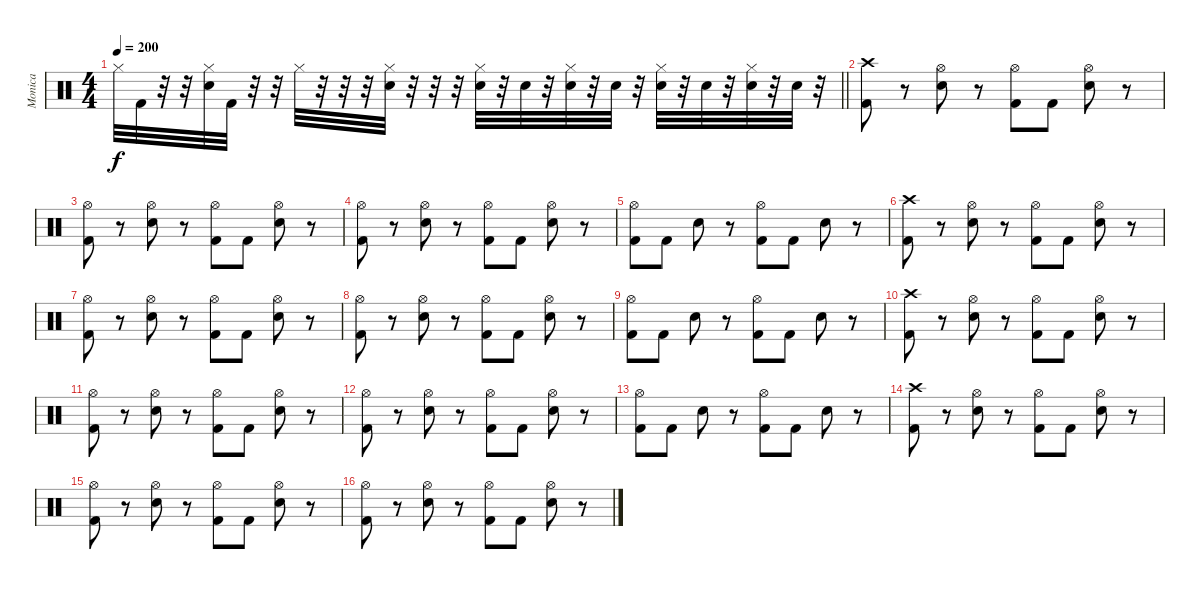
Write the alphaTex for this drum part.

\track ("Monica" "Monica") {instrument percussion}
\staff {score}
\articulation defaults
\ts (4 4)
\tempo 200
\clef neutral
\barLineRight lightlight
\ks c "Hi-Hat (closed)".32{dy f} "Kick (hit) 2".32
r.32 r.32 ("Hi-Hat (closed)" "Snare (hit) 2").32 "Kick (hit) 2".32 r.32 r.32 "Hi-Hat (closed)".32 r.32 r.32 r.32 ("Hi-Hat (closed)" "Snare (hit) 2").32 r.32 r.32 r.32 ("Hi-Hat (closed)" "Snare (hit) 2").32 r.32 "Snare (hit) 2".32 r.32 ("Hi-Hat (closed)" "Snare (hit) 2").32 r.32 "Snare (hit) 2".32 r.32 ("Hi-Hat (closed)" "Snare (hit) 2").32 r.32 "Snare (hit) 2".32 r.32 ("Hi-Hat (closed)" "Snare (hit) 2").32 r.32 "Snare (hit) 2".32 r.32 |
("Crash high (hit)" "Kick (hit) 2").8 r.8 ("Hi-Hat (open)" "Snare (hit) 2").8 r.8 ("Hi-Hat (open)" "Kick (hit) 2").8 "Kick (hit) 2".8 ("Hi-Hat (open)" "Snare (hit) 2").8 r.8 |
("Hi-Hat (open)" "Kick (hit) 2").8 r.8 ("Hi-Hat (open)" "Snare (hit) 2").8 r.8 ("Hi-Hat (open)" "Kick (hit) 2").8 "Kick (hit) 2".8 ("Hi-Hat (open)" "Snare (hit) 2").8 r.8 |
("Hi-Hat (open)" "Kick (hit) 2").8 r.8 ("Hi-Hat (open)" "Snare (hit) 2").8 r.8 ("Hi-Hat (open)" "Kick (hit) 2").8 "Kick (hit) 2".8 ("Hi-Hat (open)" "Snare (hit) 2").8 r.8 |
("Hi-Hat (open)" "Kick (hit) 2").8 "Kick (hit) 2".8 "Snare (hit) 2".8 r.8 ("Hi-Hat (open)" "Kick (hit) 2").8 "Kick (hit) 2".8 "Snare (hit) 2".8 r.8 |
("Crash high (hit)" "Kick (hit) 2").8 r.8 ("Hi-Hat (open)" "Snare (hit) 2").8 r.8 ("Hi-Hat (open)" "Kick (hit) 2").8 "Kick (hit) 2".8 ("Hi-Hat (open)" "Snare (hit) 2").8 r.8 |
("Hi-Hat (open)" "Kick (hit) 2").8 r.8 ("Hi-Hat (open)" "Snare (hit) 2").8 r.8 ("Hi-Hat (open)" "Kick (hit) 2").8 "Kick (hit) 2".8 ("Hi-Hat (open)" "Snare (hit) 2").8 r.8 |
("Hi-Hat (open)" "Kick (hit) 2").8 r.8 ("Hi-Hat (open)" "Snare (hit) 2").8 r.8 ("Hi-Hat (open)" "Kick (hit) 2").8 "Kick (hit) 2".8 ("Hi-Hat (open)" "Snare (hit) 2").8 r.8 |
("Hi-Hat (open)" "Kick (hit) 2").8 "Kick (hit) 2".8 "Snare (hit) 2".8 r.8 ("Hi-Hat (open)" "Kick (hit) 2").8 "Kick (hit) 2".8 "Snare (hit) 2".8 r.8 |
("Crash high (hit)" "Kick (hit) 2").8 r.8 ("Hi-Hat (open)" "Snare (hit) 2").8 r.8 ("Hi-Hat (open)" "Kick (hit) 2").8 "Kick (hit) 2".8 ("Hi-Hat (open)" "Snare (hit) 2").8 r.8 |
("Hi-Hat (open)" "Kick (hit) 2").8 r.8 ("Hi-Hat (open)" "Snare (hit) 2").8 r.8 ("Hi-Hat (open)" "Kick (hit) 2").8 "Kick (hit) 2".8 ("Hi-Hat (open)" "Snare (hit) 2").8 r.8 |
("Hi-Hat (open)" "Kick (hit) 2").8 r.8 ("Hi-Hat (open)" "Snare (hit) 2").8 r.8 ("Hi-Hat (open)" "Kick (hit) 2").8 "Kick (hit) 2".8 ("Hi-Hat (open)" "Snare (hit) 2").8 r.8 |
("Hi-Hat (open)" "Kick (hit) 2").8 "Kick (hit) 2".8 "Snare (hit) 2".8 r.8 ("Hi-Hat (open)" "Kick (hit) 2").8 "Kick (hit) 2".8 "Snare (hit) 2".8 r.8 |
("Crash high (hit)" "Kick (hit) 2").8 r.8 ("Hi-Hat (open)" "Snare (hit) 2").8 r.8 ("Hi-Hat (open)" "Kick (hit) 2").8 "Kick (hit) 2".8 ("Hi-Hat (open)" "Snare (hit) 2").8 r.8 |
("Hi-Hat (open)" "Kick (hit) 2").8 r.8 ("Hi-Hat (open)" "Snare (hit) 2").8 r.8 ("Hi-Hat (open)" "Kick (hit) 2").8 "Kick (hit) 2".8 ("Hi-Hat (open)" "Snare (hit) 2").8 r.8 |
("Hi-Hat (open)" "Kick (hit) 2").8 r.8 ("Hi-Hat (open)" "Snare (hit) 2").8 r.8 ("Hi-Hat (open)" "Kick (hit) 2").8 "Kick (hit) 2".8 ("Hi-Hat (open)" "Snare (hit) 2").8 r.8
